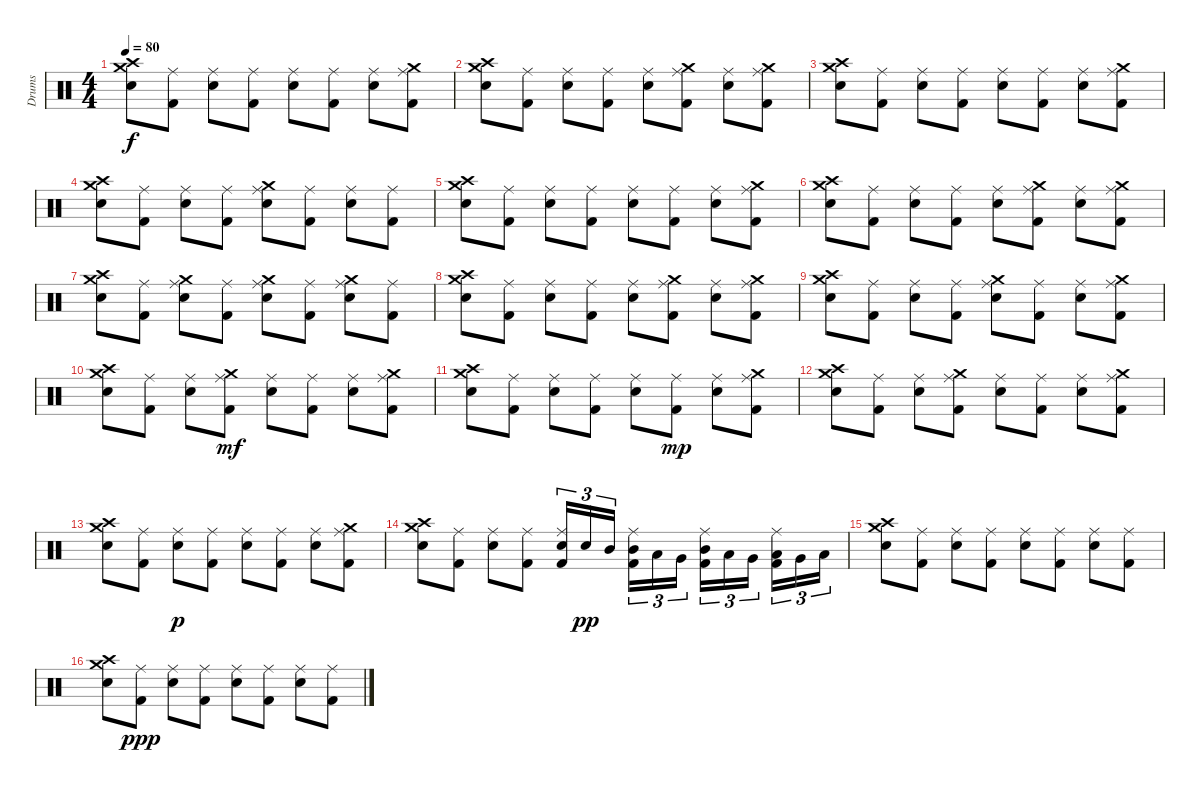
\track ("Drums" "Drums") {instrument percussion}
\staff {score}
\articulation defaults
\ts (4 4)
\tempo 80
\clef neutral
\ks c
("Snare (hit) 2" "Crash high (hit)" "Crash medium (hit)").8{dy f} ("Ride (middle)" "Kick (hit) 2").8 ("Ride (middle)" "Snare (hit) 2").8 ("Ride (middle)" "Kick (hit) 2").8 ("Ride (middle)" "Snare (hit) 2").8 ("Ride (middle)" "Kick (hit) 2").8 ("Ride (middle)" "Snare (hit) 2").8 ("Ride (middle)" "Kick (hit) 2" "Crash medium (hit)").8 |
("Snare (hit) 2" "Crash high (hit)" "Crash medium (hit)").8 ("Ride (middle)" "Kick (hit) 2").8 ("Ride (middle)" "Snare (hit) 2").8 ("Ride (middle)" "Kick (hit) 2").8 ("Ride (middle)" "Snare (hit) 2").8 ("Ride (middle)" "Kick (hit) 2" "Crash medium (hit)").8 ("Ride (middle)" "Snare (hit) 2").8 ("Ride (middle)" "Kick (hit) 2" "Crash medium (hit)").8 |
("Snare (hit) 2" "Crash high (hit)" "Crash medium (hit)").8 ("Ride (middle)" "Kick (hit) 2").8 ("Ride (middle)" "Snare (hit) 2").8 ("Ride (middle)" "Kick (hit) 2").8 ("Ride (middle)" "Snare (hit) 2").8 ("Ride (middle)" "Kick (hit) 2").8 ("Ride (middle)" "Snare (hit) 2").8 ("Crash medium (hit)" "Ride (middle)" "Kick (hit) 2").8 |
("Snare (hit) 2" "Crash medium (hit)" "Crash high (hit)").8 ("Ride (middle)" "Kick (hit) 2").8 ("Ride (middle)" "Snare (hit) 2").8 ("Ride (middle)" "Kick (hit) 2").8 ("Ride (middle)" "Snare (hit) 2" "Crash medium (hit)").8 ("Ride (middle)" "Kick (hit) 2").8 ("Ride (middle)" "Snare (hit) 2").8 ("Ride (middle)" "Kick (hit) 2").8 |
("Snare (hit) 2" "Crash high (hit)" "Crash medium (hit)").8 ("Ride (middle)" "Kick (hit) 2").8 ("Ride (middle)" "Snare (hit) 2").8 ("Ride (middle)" "Kick (hit) 2").8 ("Ride (middle)" "Snare (hit) 2").8 ("Ride (middle)" "Kick (hit) 2").8 ("Ride (middle)" "Snare (hit) 2").8 ("Ride (middle)" "Kick (hit) 2" "Crash medium (hit)").8 |
("Snare (hit) 2" "Crash high (hit)" "Crash medium (hit)").8 ("Ride (middle)" "Kick (hit) 2").8 ("Ride (middle)" "Snare (hit) 2").8 ("Ride (middle)" "Kick (hit) 2").8 ("Ride (middle)" "Snare (hit) 2").8 ("Ride (middle)" "Kick (hit) 2" "Crash medium (hit)").8 ("Ride (middle)" "Snare (hit) 2").8 ("Ride (middle)" "Kick (hit) 2" "Crash medium (hit)").8 |
("Snare (hit) 2" "Crash medium (hit)" "Crash high (hit)").8 ("Ride (middle)" "Kick (hit) 2").8 ("Ride (middle)" "Snare (hit) 2" "Crash medium (hit)").8 ("Ride (middle)" "Kick (hit) 2").8 ("Ride (middle)" "Snare (hit) 2" "Crash medium (hit)").8 ("Ride (middle)" "Kick (hit) 2").8 ("Ride (middle)" "Snare (hit) 2" "Crash medium (hit)").8 ("Ride (middle)" "Kick (hit) 2").8 |
("Crash high (hit)" "Snare (hit) 2" "Crash medium (hit)").8 ("Ride (middle)" "Kick (hit) 2").8 ("Ride (middle)" "Snare (hit) 2").8 ("Ride (middle)" "Kick (hit) 2").8 ("Ride (middle)" "Snare (hit) 2").8 ("Ride (middle)" "Kick (hit) 2" "Crash medium (hit)").8 ("Ride (middle)" "Snare (hit) 2").8 ("Ride (middle)" "Kick (hit) 2" "Crash medium (hit)").8 |
("Crash high (hit)" "Snare (hit) 2" "Crash medium (hit)").8 ("Ride (middle)" "Kick (hit) 2").8 ("Ride (middle)" "Snare (hit) 2").8 ("Ride (middle)" "Kick (hit) 2").8 ("Ride (middle)" "Snare (hit) 2" "Crash medium (hit)").8 ("Ride (middle)" "Kick (hit) 2").8 ("Ride (middle)" "Snare (hit) 2").8 ("Crash medium (hit)" "Ride (middle)" "Kick (hit) 2").8 |
("Crash medium (hit)" "Crash high (hit)" "Snare (hit) 2").8 ("Ride (middle)" "Kick (hit) 2").8 ("Ride (middle)" "Snare (hit) 2").8 ("Crash medium (hit)" "Ride (middle)" "Kick (hit) 2").8{dy mf} ("Ride (middle)" "Snare (hit) 2").8 ("Ride (middle)" "Kick (hit) 2").8 ("Ride (middle)" "Snare (hit) 2").8 ("Ride (middle)" "Crash medium (hit)" "Kick (hit) 2").8 |
("Crash medium (hit)" "Crash high (hit)" "Snare (hit) 2").8 ("Ride (middle)" "Kick (hit) 2").8 ("Ride (middle)" "Snare (hit) 2").8 ("Ride (middle)" "Kick (hit) 2").8 ("Ride (middle)" "Snare (hit) 2").8 ("Ride (middle)" "Kick (hit) 2").8{dy mp} ("Ride (middle)" "Snare (hit) 2").8 ("Ride (middle)" "Crash medium (hit)" "Kick (hit) 2").8 |
("Crash medium (hit)" "Crash high (hit)" "Snare (hit) 2").8 ("Ride (middle)" "Kick (hit) 2").8 ("Ride (middle)" "Snare (hit) 2").8 ("Ride (middle)" "Kick (hit) 2" "Crash medium (hit)").8 ("Ride (middle)" "Snare (hit) 2").8 ("Ride (middle)" "Kick (hit) 2").8 ("Ride (middle)" "Snare (hit) 2").8 ("Ride (middle)" "Crash medium (hit)" "Kick (hit) 2").8 |
("Crash medium (hit)" "Crash high (hit)" "Snare (hit) 2").8 ("Ride (middle)" "Kick (hit) 2").8 ("Ride (middle)" "Snare (hit) 2").8{dy p} ("Ride (middle)" "Kick (hit) 2").8 ("Ride (middle)" "Snare (hit) 2").8 ("Ride (middle)" "Kick (hit) 2").8 ("Ride (middle)" "Snare (hit) 2").8 ("Crash medium (hit)" "Ride (middle)" "Kick (hit) 2").8 |
("Crash high (hit)" "Crash medium (hit)" "Snare (hit) 2").8 ("Ride (middle)" "Kick (hit) 2").8 ("Ride (middle)" "Snare (hit) 2").8 ("Ride (middle)" "Kick (hit) 2").8 ("Ride (middle)" "Kick (hit) 2" "Snare (hit) 2").16{tu (3 2)} "Snare (hit) 2".16{tu (3 2) dy pp} "Mid Tom (hit)".16{tu (3 2)} ("Ride (middle)" "Kick (hit) 2" "Mid Tom (hit)").16{tu (3 2)} "Low Tom (hit)".16{tu (3 2)} "Very Low Tom (hit)".16{tu (3 2)} ("Ride (middle)" "Kick (hit) 2" "Mid Tom (hit)").16{tu (3 2)} "Low Tom (hit)".16{tu (3 2)} "Very Low Tom (hit)".16{tu (3 2)} ("Ride (middle)" "Kick (hit) 2" "Low Tom (hit)").16{tu (3 2)} "Very Low Tom (hit)".16{tu (3 2)} "Low Floor Tom (hit)".16{tu (3 2)} |
("Snare (hit) 2" "Crash medium (hit)" "Crash high (hit)").8 ("Ride (middle)" "Kick (hit) 2").8 ("Ride (middle)" "Snare (hit) 2").8 ("Ride (middle)" "Kick (hit) 2").8 ("Ride (middle)" "Snare (hit) 2").8 ("Ride (middle)" "Kick (hit) 2").8 ("Ride (middle)" "Snare (hit) 2").8 ("Ride (middle)" "Kick (hit) 2").8 |
("Snare (hit) 2" "Crash medium (hit)" "Crash high (hit)").8 ("Ride (middle)" "Kick (hit) 2").8{dy ppp} ("Ride (middle)" "Snare (hit) 2").8 ("Ride (middle)" "Kick (hit) 2").8 ("Ride (middle)" "Snare (hit) 2").8 ("Ride (middle)" "Kick (hit) 2").8 ("Ride (middle)" "Snare (hit) 2").8 ("Ride (middle)" "Kick (hit) 2").8
